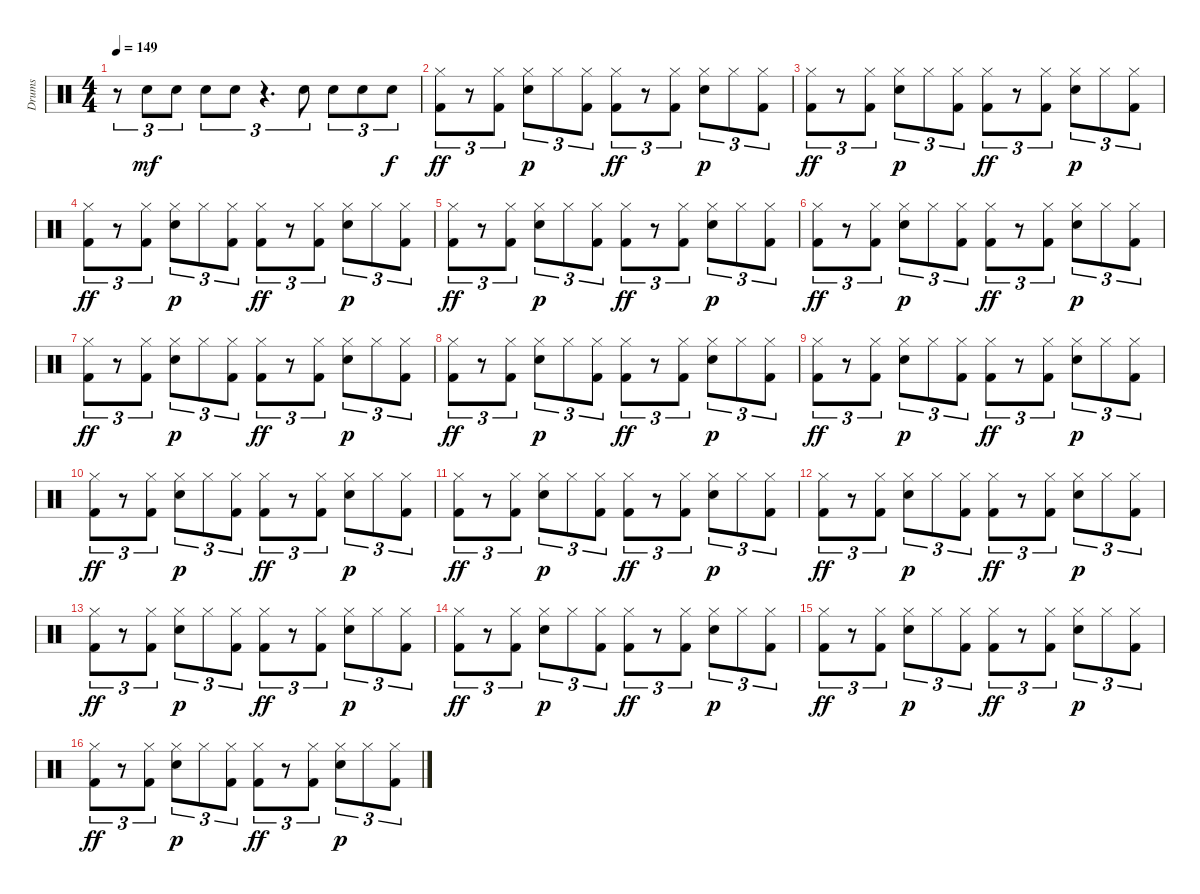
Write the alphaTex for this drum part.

\track ("Drums" "Drums") {instrument percussion}
\staff {score}
\articulation defaults
\ts (4 4)
\tempo 149
\clef neutral
\ks c
r.8{tu (3 2) dy mf} "Snare (hit) 2".8{tu (3 2)} "Snare (hit) 2".8{tu (3 2)} "Snare (hit) 2".8{tu (3 2)} "Snare (hit) 2".8{tu (3 2)} r.4{d tu (3 2)} "Snare (hit) 2".8{tu (3 2)} "Snare (hit) 2".8{tu (3 2)} "Snare (hit) 2".8{tu (3 2)} "Snare (hit) 2".8{tu (3 2) dy f} |
("Kick (hit) 2" "Hi-Hat (closed)").8{tu (3 2) dy ff} r.8{tu (3 2)} ("Kick (hit) 2" "Hi-Hat (closed)").8{tu (3 2)} ("Snare (hit) 2" "Hi-Hat (closed)").8{tu (3 2) dy p} "Hi-Hat (closed)".8{tu (3 2)} ("Kick (hit) 2" "Hi-Hat (closed)").8{tu (3 2)} ("Kick (hit) 2" "Hi-Hat (closed)").8{tu (3 2) dy ff} r.8{tu (3 2)} ("Kick (hit) 2" "Hi-Hat (closed)").8{tu (3 2)} ("Snare (hit) 2" "Hi-Hat (closed)").8{tu (3 2) dy p} "Hi-Hat (closed)".8{tu (3 2)} ("Kick (hit) 2" "Hi-Hat (closed)").8{tu (3 2)} |
("Kick (hit) 2" "Hi-Hat (closed)").8{tu (3 2) dy ff} r.8{tu (3 2)} ("Kick (hit) 2" "Hi-Hat (closed)").8{tu (3 2)} ("Snare (hit) 2" "Hi-Hat (closed)").8{tu (3 2) dy p} "Hi-Hat (closed)".8{tu (3 2)} ("Kick (hit) 2" "Hi-Hat (closed)").8{tu (3 2)} ("Kick (hit) 2" "Hi-Hat (closed)").8{tu (3 2) dy ff} r.8{tu (3 2)} ("Kick (hit) 2" "Hi-Hat (closed)").8{tu (3 2)} ("Snare (hit) 2" "Hi-Hat (closed)").8{tu (3 2) dy p} "Hi-Hat (closed)".8{tu (3 2)} ("Kick (hit) 2" "Hi-Hat (closed)").8{tu (3 2)} |
("Kick (hit) 2" "Hi-Hat (closed)").8{tu (3 2) dy ff} r.8{tu (3 2)} ("Kick (hit) 2" "Hi-Hat (closed)").8{tu (3 2)} ("Snare (hit) 2" "Hi-Hat (closed)").8{tu (3 2) dy p} "Hi-Hat (closed)".8{tu (3 2)} ("Kick (hit) 2" "Hi-Hat (closed)").8{tu (3 2)} ("Kick (hit) 2" "Hi-Hat (closed)").8{tu (3 2) dy ff} r.8{tu (3 2)} ("Kick (hit) 2" "Hi-Hat (closed)").8{tu (3 2)} ("Snare (hit) 2" "Hi-Hat (closed)").8{tu (3 2) dy p} "Hi-Hat (closed)".8{tu (3 2)} ("Kick (hit) 2" "Hi-Hat (closed)").8{tu (3 2)} |
("Kick (hit) 2" "Hi-Hat (closed)").8{tu (3 2) dy ff} r.8{tu (3 2)} ("Kick (hit) 2" "Hi-Hat (closed)").8{tu (3 2)} ("Snare (hit) 2" "Hi-Hat (closed)").8{tu (3 2) dy p} "Hi-Hat (closed)".8{tu (3 2)} ("Kick (hit) 2" "Hi-Hat (closed)").8{tu (3 2)} ("Kick (hit) 2" "Hi-Hat (closed)").8{tu (3 2) dy ff} r.8{tu (3 2)} ("Kick (hit) 2" "Hi-Hat (closed)").8{tu (3 2)} ("Snare (hit) 2" "Hi-Hat (closed)").8{tu (3 2) dy p} "Hi-Hat (closed)".8{tu (3 2)} ("Kick (hit) 2" "Hi-Hat (closed)").8{tu (3 2)} |
("Kick (hit) 2" "Hi-Hat (closed)").8{tu (3 2) dy ff} r.8{tu (3 2)} ("Kick (hit) 2" "Hi-Hat (closed)").8{tu (3 2)} ("Snare (hit) 2" "Hi-Hat (closed)").8{tu (3 2) dy p} "Hi-Hat (closed)".8{tu (3 2)} ("Kick (hit) 2" "Hi-Hat (closed)").8{tu (3 2)} ("Kick (hit) 2" "Hi-Hat (closed)").8{tu (3 2) dy ff} r.8{tu (3 2)} ("Kick (hit) 2" "Hi-Hat (closed)").8{tu (3 2)} ("Snare (hit) 2" "Hi-Hat (closed)").8{tu (3 2) dy p} "Hi-Hat (closed)".8{tu (3 2)} ("Kick (hit) 2" "Hi-Hat (closed)").8{tu (3 2)} |
("Kick (hit) 2" "Hi-Hat (closed)").8{tu (3 2) dy ff} r.8{tu (3 2)} ("Kick (hit) 2" "Hi-Hat (closed)").8{tu (3 2)} ("Snare (hit) 2" "Hi-Hat (closed)").8{tu (3 2) dy p} "Hi-Hat (closed)".8{tu (3 2)} ("Kick (hit) 2" "Hi-Hat (closed)").8{tu (3 2)} ("Kick (hit) 2" "Hi-Hat (closed)").8{tu (3 2) dy ff} r.8{tu (3 2)} ("Kick (hit) 2" "Hi-Hat (closed)").8{tu (3 2)} ("Snare (hit) 2" "Hi-Hat (closed)").8{tu (3 2) dy p} "Hi-Hat (closed)".8{tu (3 2)} ("Kick (hit) 2" "Hi-Hat (closed)").8{tu (3 2)} |
("Kick (hit) 2" "Hi-Hat (closed)").8{tu (3 2) dy ff} r.8{tu (3 2)} ("Kick (hit) 2" "Hi-Hat (closed)").8{tu (3 2)} ("Snare (hit) 2" "Hi-Hat (closed)").8{tu (3 2) dy p} "Hi-Hat (closed)".8{tu (3 2)} ("Kick (hit) 2" "Hi-Hat (closed)").8{tu (3 2)} ("Kick (hit) 2" "Hi-Hat (closed)").8{tu (3 2) dy ff} r.8{tu (3 2)} ("Kick (hit) 2" "Hi-Hat (closed)").8{tu (3 2)} ("Snare (hit) 2" "Hi-Hat (closed)").8{tu (3 2) dy p} "Hi-Hat (closed)".8{tu (3 2)} ("Kick (hit) 2" "Hi-Hat (closed)").8{tu (3 2)} |
("Kick (hit) 2" "Hi-Hat (closed)").8{tu (3 2) dy ff} r.8{tu (3 2)} ("Kick (hit) 2" "Hi-Hat (closed)").8{tu (3 2)} ("Snare (hit) 2" "Hi-Hat (closed)").8{tu (3 2) dy p} "Hi-Hat (closed)".8{tu (3 2)} ("Kick (hit) 2" "Hi-Hat (closed)").8{tu (3 2)} ("Kick (hit) 2" "Hi-Hat (closed)").8{tu (3 2) dy ff} r.8{tu (3 2)} ("Kick (hit) 2" "Hi-Hat (closed)").8{tu (3 2)} ("Snare (hit) 2" "Hi-Hat (closed)").8{tu (3 2) dy p} "Hi-Hat (closed)".8{tu (3 2)} ("Kick (hit) 2" "Hi-Hat (closed)").8{tu (3 2)} |
("Kick (hit) 2" "Hi-Hat (closed)").8{tu (3 2) dy ff} r.8{tu (3 2)} ("Kick (hit) 2" "Hi-Hat (closed)").8{tu (3 2)} ("Snare (hit) 2" "Hi-Hat (closed)").8{tu (3 2) dy p} "Hi-Hat (closed)".8{tu (3 2)} ("Kick (hit) 2" "Hi-Hat (closed)").8{tu (3 2)} ("Kick (hit) 2" "Hi-Hat (closed)").8{tu (3 2) dy ff} r.8{tu (3 2)} ("Kick (hit) 2" "Hi-Hat (closed)").8{tu (3 2)} ("Snare (hit) 2" "Hi-Hat (closed)").8{tu (3 2) dy p} "Hi-Hat (closed)".8{tu (3 2)} ("Kick (hit) 2" "Hi-Hat (closed)").8{tu (3 2)} |
("Kick (hit) 2" "Hi-Hat (closed)").8{tu (3 2) dy ff} r.8{tu (3 2)} ("Kick (hit) 2" "Hi-Hat (closed)").8{tu (3 2)} ("Snare (hit) 2" "Hi-Hat (closed)").8{tu (3 2) dy p} "Hi-Hat (closed)".8{tu (3 2)} ("Kick (hit) 2" "Hi-Hat (closed)").8{tu (3 2)} ("Kick (hit) 2" "Hi-Hat (closed)").8{tu (3 2) dy ff} r.8{tu (3 2)} ("Kick (hit) 2" "Hi-Hat (closed)").8{tu (3 2)} ("Snare (hit) 2" "Hi-Hat (closed)").8{tu (3 2) dy p} "Hi-Hat (closed)".8{tu (3 2)} ("Kick (hit) 2" "Hi-Hat (closed)").8{tu (3 2)} |
("Kick (hit) 2" "Hi-Hat (closed)").8{tu (3 2) dy ff} r.8{tu (3 2)} ("Kick (hit) 2" "Hi-Hat (closed)").8{tu (3 2)} ("Snare (hit) 2" "Hi-Hat (closed)").8{tu (3 2) dy p} "Hi-Hat (closed)".8{tu (3 2)} ("Kick (hit) 2" "Hi-Hat (closed)").8{tu (3 2)} ("Kick (hit) 2" "Hi-Hat (closed)").8{tu (3 2) dy ff} r.8{tu (3 2)} ("Kick (hit) 2" "Hi-Hat (closed)").8{tu (3 2)} ("Snare (hit) 2" "Hi-Hat (closed)").8{tu (3 2) dy p} "Hi-Hat (closed)".8{tu (3 2)} ("Kick (hit) 2" "Hi-Hat (closed)").8{tu (3 2)} |
("Kick (hit) 2" "Hi-Hat (closed)").8{tu (3 2) dy ff} r.8{tu (3 2)} ("Kick (hit) 2" "Hi-Hat (closed)").8{tu (3 2)} ("Snare (hit) 2" "Hi-Hat (closed)").8{tu (3 2) dy p} "Hi-Hat (closed)".8{tu (3 2)} ("Kick (hit) 2" "Hi-Hat (closed)").8{tu (3 2)} ("Kick (hit) 2" "Hi-Hat (closed)").8{tu (3 2) dy ff} r.8{tu (3 2)} ("Kick (hit) 2" "Hi-Hat (closed)").8{tu (3 2)} ("Snare (hit) 2" "Hi-Hat (closed)").8{tu (3 2) dy p} "Hi-Hat (closed)".8{tu (3 2)} ("Kick (hit) 2" "Hi-Hat (closed)").8{tu (3 2)} |
("Kick (hit) 2" "Hi-Hat (closed)").8{tu (3 2) dy ff} r.8{tu (3 2)} ("Kick (hit) 2" "Hi-Hat (closed)").8{tu (3 2)} ("Snare (hit) 2" "Hi-Hat (closed)").8{tu (3 2) dy p} "Hi-Hat (closed)".8{tu (3 2)} ("Kick (hit) 2" "Hi-Hat (closed)").8{tu (3 2)} ("Kick (hit) 2" "Hi-Hat (closed)").8{tu (3 2) dy ff} r.8{tu (3 2)} ("Kick (hit) 2" "Hi-Hat (closed)").8{tu (3 2)} ("Snare (hit) 2" "Hi-Hat (closed)").8{tu (3 2) dy p} "Hi-Hat (closed)".8{tu (3 2)} ("Kick (hit) 2" "Hi-Hat (closed)").8{tu (3 2)} |
("Kick (hit) 2" "Hi-Hat (closed)").8{tu (3 2) dy ff} r.8{tu (3 2)} ("Kick (hit) 2" "Hi-Hat (closed)").8{tu (3 2)} ("Snare (hit) 2" "Hi-Hat (closed)").8{tu (3 2) dy p} "Hi-Hat (closed)".8{tu (3 2)} ("Kick (hit) 2" "Hi-Hat (closed)").8{tu (3 2)} ("Kick (hit) 2" "Hi-Hat (closed)").8{tu (3 2) dy ff} r.8{tu (3 2)} ("Kick (hit) 2" "Hi-Hat (closed)").8{tu (3 2)} ("Snare (hit) 2" "Hi-Hat (closed)").8{tu (3 2) dy p} "Hi-Hat (closed)".8{tu (3 2)} ("Kick (hit) 2" "Hi-Hat (closed)").8{tu (3 2)} |
("Kick (hit) 2" "Hi-Hat (closed)").8{tu (3 2) dy ff} r.8{tu (3 2)} ("Kick (hit) 2" "Hi-Hat (closed)").8{tu (3 2)} ("Snare (hit) 2" "Hi-Hat (closed)").8{tu (3 2) dy p} "Hi-Hat (closed)".8{tu (3 2)} ("Kick (hit) 2" "Hi-Hat (closed)").8{tu (3 2)} ("Kick (hit) 2" "Hi-Hat (closed)").8{tu (3 2) dy ff} r.8{tu (3 2)} ("Kick (hit) 2" "Hi-Hat (closed)").8{tu (3 2)} ("Snare (hit) 2" "Hi-Hat (closed)").8{tu (3 2) dy p} "Hi-Hat (closed)".8{tu (3 2)} ("Kick (hit) 2" "Hi-Hat (closed)").8{tu (3 2)}
